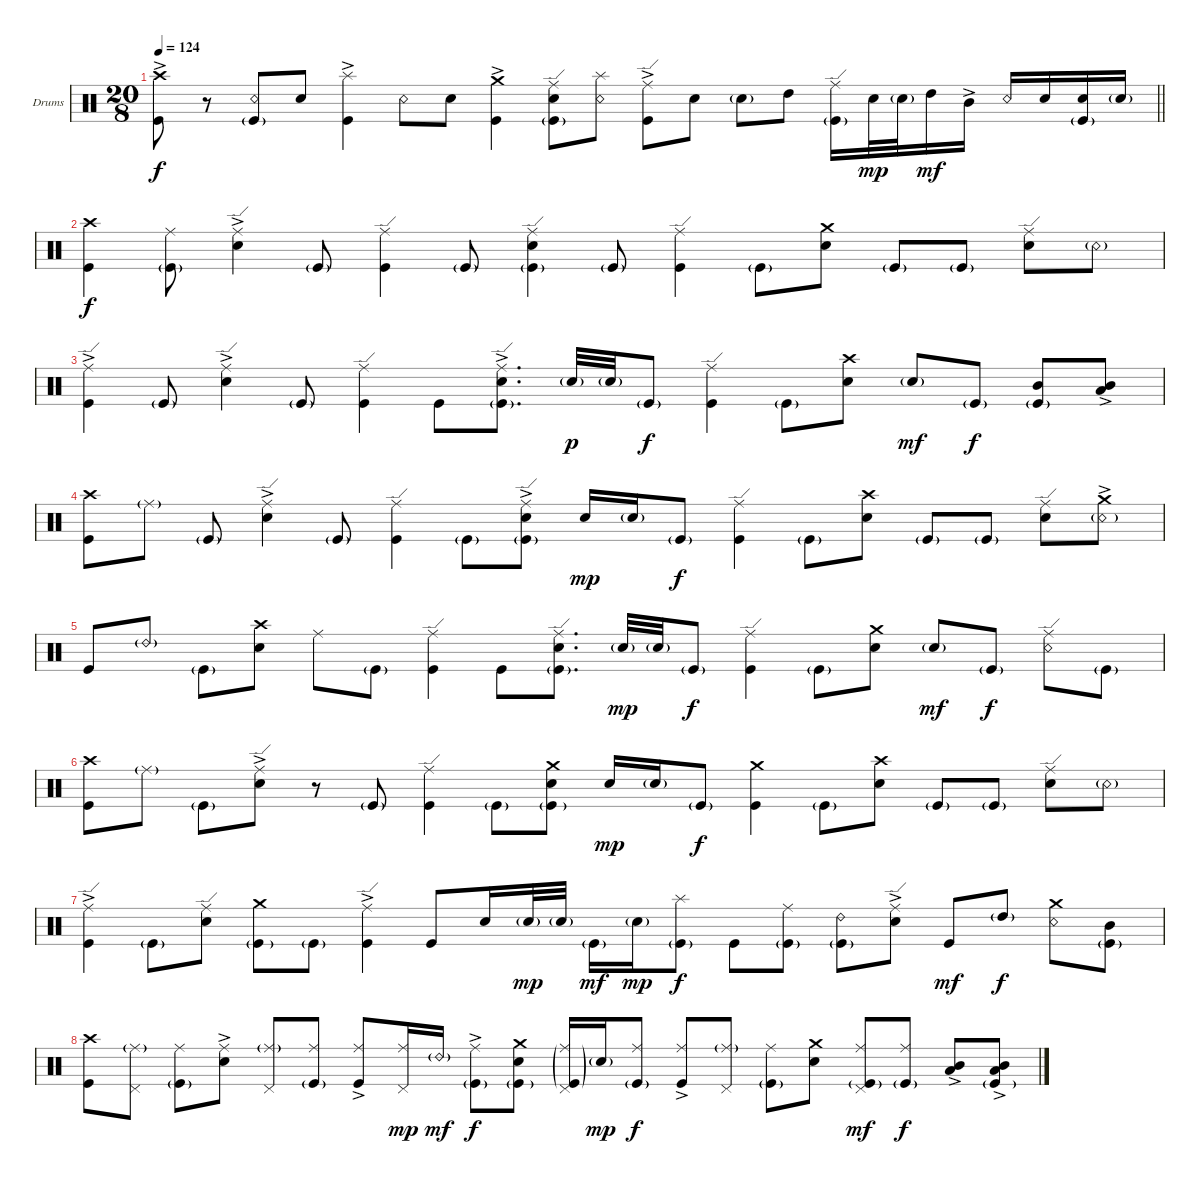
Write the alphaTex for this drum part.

\bracketExtendMode groupsimilarinstruments
\firstSystemTrackNameOrientation horizontal
\otherSystemsTrackNameOrientation horizontal
\track ("Drumkit" "Drums") {instrument percussion}
\staff {score}
\articulation defaults
\ts (20 8)
\tempo 124
\clef neutral
\barLineRight lightlight
\ks c
("Kick (hit)" "Crash high (hit)"{ac}).8{dy f} r.8 ("Snare (rim shot)" "Kick (hit)"{g}).8 "Snare (hit) 2".8 ("Kick (hit)" "Splash (hit)"{ac}).4 "Snare (rim shot)".8 "Snare (hit) 2".8 ("Kick (hit)" "Crash medium (hit)"{ac}).4 ("Kick (hit)"{g} "Snare (hit) 2" "Ride (edge)").8 ("Snare (rim shot)" "Splash (hit)").8 ("Kick (hit)" "Ride (edge)"{ac}).8 "Snare (hit) 2".8 "Snare (hit) 2"{g}.8 "High Tom (hit)".8 ("Kick (hit)"{g} "Ride (edge)").16 "Snare (hit) 2".32{dy mp} "Snare (hit) 2"{g}.32 "High Tom (hit)".16{dy mf} "Mid Tom (hit)"{ac}.16 "Snare (rim shot)".16 "Snare (hit) 2".16 ("Snare (hit) 2" "Kick (hit)"{g}).16 "Snare (hit) 2"{g}.16 |
("Kick (hit)" "Crash high (hit)").4{dy f} ("Kick (hit)"{g} "Ride (middle)").8 ("Snare (hit) 2" "Ride (edge)"{ac}).4 "Kick (hit)"{g}.8 ("Kick (hit)" "Ride (edge)").4 "Kick (hit)"{g}.8 ("Snare (hit) 2" "Ride (edge)" "Kick (hit)"{g}).4 "Kick (hit)"{g}.8 ("Kick (hit)" "Ride (edge)").4 "Kick (hit)"{g}.8 ("Snare (hit) 2" "Crash medium (hit)").8 "Kick (hit)"{g}.8 "Kick (hit)"{g}.8 ("Snare (hit) 2" "Ride (edge)").8 "Snare (rim shot)"{g}.8 |
("Kick (hit)" "Ride (edge)"{ac}).4 "Kick (hit)"{g}.8 ("Snare (hit) 2" "Ride (edge)"{ac}).4 "Kick (hit)"{g}.8 ("Kick (hit)" "Ride (edge)").4 "Kick (hit)".8 ("Snare (hit) 2" "Ride (edge)"{ac} "Kick (hit)"{g}).8{d} "Snare (hit) 2"{g}.32{dy p} "Snare (hit) 2"{g}.32 "Kick (hit)"{g}.8{dy f} ("Kick (hit)" "Ride (edge)").4 "Kick (hit)"{g}.8 ("Snare (hit) 2" "Crash high (hit)").8 "Snare (hit) 2"{g}.8{dy mf} "Kick (hit)"{g}.8{dy f} ("Mid Tom (hit)" "Kick (hit)"{g}).8 ("Mid Tom (hit)" "Low Tom (hit)"{ac}).8 |
("Kick (hit)" "Crash high (hit)").8 "Ride (middle)"{g}.8 "Kick (hit)"{g}.8 ("Snare (hit) 2" "Ride (edge)"{ac}).4 "Kick (hit)"{g}.8 ("Kick (hit)" "Ride (edge)").4 "Kick (hit)"{g}.8 ("Snare (hit) 2" "Ride (edge)"{ac} "Kick (hit)"{g}).8 "Snare (hit) 2".16{dy mp} "Snare (hit) 2"{g}.16 "Kick (hit)"{g}.8{dy f} ("Kick (hit)" "Ride (edge)").4 "Kick (hit)"{g}.8 ("Snare (hit) 2" "Crash high (hit)").8 "Kick (hit)"{g}.8 "Kick (hit)"{g}.8 ("Snare (hit) 2" "Ride (edge)").8 ("Snare (rim shot)"{g} "Crash medium (hit)"{ac}).8 |
"Kick (hit)".8 "Ride (bell) 2"{g}.8 "Kick (hit)"{g}.8 ("Snare (hit) 2" "Crash high (hit)").8 "Ride (middle)".8 "Kick (hit)"{g}.8 ("Kick (hit)" "Ride (edge)").4 "Kick (hit)".8 ("Snare (hit) 2" "Ride (edge)" "Kick (hit)"{g}).8{d} "Snare (hit) 2"{g}.32{dy mp} "Snare (hit) 2"{g}.32 "Kick (hit)"{g}.8{dy f} ("Kick (hit)" "Ride (edge)").4 "Kick (hit)"{g}.8 ("Snare (hit) 2" "Crash medium (hit)").8 "Snare (hit) 2"{g}.8{dy mf} "Kick (hit)"{g}.8{dy f} ("Snare (rim shot)" "Ride (edge)").8 "Kick (hit)"{g}.8 |
("Kick (hit)" "Crash high (hit)").8 "Ride (middle)"{g}.8 "Kick (hit)"{g}.8 ("Snare (hit) 2" "Ride (edge)"{ac}).8 r.8 "Kick (hit)"{g}.8 ("Kick (hit)" "Ride (edge)").4 "Kick (hit)"{g}.8 ("Snare (hit) 2" "Crash medium (hit)" "Kick (hit)"{g}).8 "Snare (hit) 2".16{dy mp} "Snare (hit) 2"{g}.16 "Kick (hit)"{g}.8{dy f} ("Kick (hit)" "Crash medium (hit)").4 "Kick (hit)"{g}.8 ("Snare (hit) 2" "Crash high (hit)").8 "Kick (hit)"{g}.8 "Kick (hit)"{g}.8 ("Snare (hit) 2" "Ride (edge)").8 "Snare (rim shot)"{g}.8 |
("Kick (hit)" "Ride (edge)"{ac}).4 "Kick (hit)"{g}.8 ("Snare (hit) 2" "Ride (edge)").8 ("Kick (hit)"{g} "Crash medium (hit)").8 "Kick (hit)"{g}.8 ("Kick (hit)" "Ride (edge)"{ac}).4 "Kick (hit)".8 "Snare (hit) 2".16 "Snare (hit) 2"{g}.32{dy mp} "Snare (hit) 2"{g}.32 "Kick (hit)"{g}.16{dy mf} "Snare (hit) 2"{g}.16{dy mp} ("Kick (hit)"{g} "Splash (hit)").8{dy f} "Kick (hit)".8 ("Ride (middle)" "Kick (hit)"{g}).8 ("Ride (bell) 2" "Kick (hit)"{g}).8 ("Ride (edge)"{ac} "Snare (hit) 2").8 "Kick (hit)".8{dy mf} "High Tom (hit)"{g}.8{dy f} ("Snare (rim shot)" "Crash medium (hit)").8 ("Kick (hit)"{g} "Mid Tom (hit)").8 |
("Kick (hit)" "Crash high (hit)").8 ("Ride (middle)"{g} "Pedal Hi-Hat (hit)").8 ("Ride (middle)" "Kick (hit)"{g}).8 ("Ride (middle)"{ac} "Snare (hit) 2").8 ("Ride (middle)"{g} "Pedal Hi-Hat (hit)").8 ("Ride (middle)" "Kick (hit)"{g}).8 ("Ride (middle)"{ac} "Kick (hit)").8 ("Ride (middle)" "Pedal Hi-Hat (hit)").16{dy mp} "Ride (bell) 2"{g}.16{dy mf} ("Ride (middle)"{ac} "Kick (hit)"{g}).8{dy f} ("Snare (hit) 2" "Crash medium (hit)" "Kick (hit)"{g}).8 ("Ride (middle)"{g} "Kick (hit)"{g} "Pedal Hi-Hat (hit)").16 "Snare (hit) 2"{g}.16{dy mp} ("Ride (middle)" "Kick (hit)"{g}).8{dy f} ("Kick (hit)" "Ride (middle)"{ac}).8 ("Ride (middle)"{g} "Pedal Hi-Hat (hit)").8 ("Ride (middle)" "Kick (hit)"{g}).8 ("Snare (hit) 2" "Crash medium (hit)").8 ("Ride (middle)" "Kick (hit)"{g} "Pedal Hi-Hat (hit)").8{dy mf} ("Ride (middle)" "Kick (hit)"{g}).8{dy f} ("Mid Tom (hit)"{ac} "Low Tom (hit)"{ac}).8 ("Mid Tom (hit)" "Low Tom (hit)"{ac} "Kick (hit)"{g}).8
